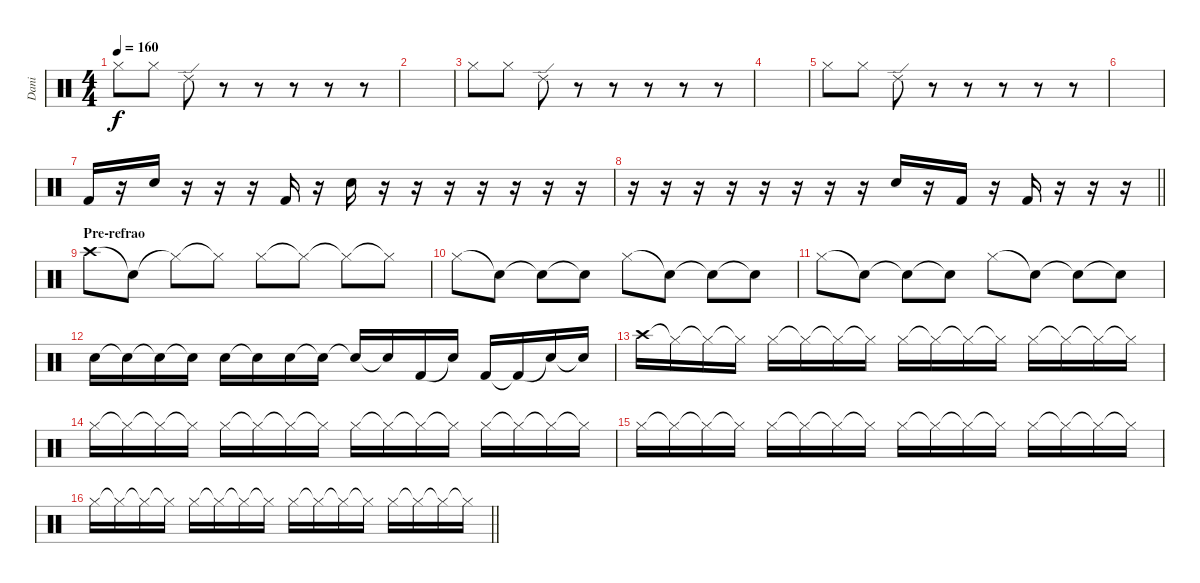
\track ("Dani " "Dani ") {instrument percussion}
\staff {score}
\articulation defaults
\ts (4 4)
\tempo 160
\clef neutral
\ks c "Hi-Hat (closed)".8{dy f} "Hi-Hat (closed)".8 "Ride (edge) 2".8
r.8 r.8 r.8 r.8 r.8 |
|
"Hi-Hat (closed)".8 "Hi-Hat (closed)".8 "Ride (edge) 2".8 r.8 r.8 r.8 r.8 r.8 |
|
"Hi-Hat (closed)".8 "Hi-Hat (closed)".8 "Ride (edge) 2".8 r.8 r.8 r.8 r.8 r.8 |
|
"Kick (hit) 2".16 r.16 "Electric Snare (hit)".16 r.16 r.16 r.16 "Kick (hit) 2".16 r.16 "Electric Snare (hit)".16 r.16 r.16 r.16 r.16 r.16 r.16 r.16 |
\barLineRight lightlight
r.16 r.16 r.16 r.16 r.16 r.16 r.16 r.16 "Electric Snare (hit)".16 r.16 "Kick (hit) 2".16 r.16 "Kick (hit) 2".16 r.16 r.16 r.16 |
\section ("" "Pre-refrao")
"Crash high (hit)".8 "Snare (hit)"{t}.8 "Hi-Hat (closed)"{t}.8 "Hi-Hat (closed)"{t}.8 "Hi-Hat (closed)".8 "Hi-Hat (closed)"{t}.8 "Hi-Hat (closed)"{t}.8 "Hi-Hat (closed)"{t}.8 |
"Hi-Hat (closed)".8 "Snare (hit)"{t}.8 "Snare (hit)"{t}.8 "Snare (hit)"{t}.8 "Hi-Hat (closed)".8 "Snare (hit)"{t}.8 "Snare (hit)"{t}.8 "Snare (hit)"{t}.8 |
"Hi-Hat (closed)".8 "Snare (hit)"{t}.8 "Snare (hit)"{t}.8 "Snare (hit)"{t}.8 "Hi-Hat (closed)".8 "Snare (hit)"{t}.8 "Snare (hit)"{t}.8 "Snare (hit)"{t}.8 |
"Electric Snare (hit)".16 "Snare (hit)"{t}.16 "Snare (hit)"{t}.16 "Snare (hit)"{t}.16 "Electric Snare (hit)".16 "Snare (hit)"{t}.16 "Electric Snare (hit)".16 "Snare (hit)"{t}.16 "Snare (hit)"{t}.16 "Snare (hit)"{t}.16 "Kick (hit) 2".16 "Snare (hit)"{t}.16 "Kick (hit) 2".16 "Kick (hit) 2"{t}.16 "Snare (hit)"{t}.16 "Snare (hit)"{t}.16 |
"Crash high (hit)".16 "Hi-Hat (closed)"{t}.16 "Hi-Hat (closed)"{t}.16 "Hi-Hat (closed)"{t}.16 "Hi-Hat (closed)".16 "Hi-Hat (closed)"{t}.16 "Hi-Hat (closed)"{t}.16 "Hi-Hat (closed)"{t}.16 "Hi-Hat (closed)".16 "Hi-Hat (closed)"{t}.16 "Hi-Hat (closed)"{t}.16 "Hi-Hat (closed)"{t}.16 "Hi-Hat (closed)".16 "Hi-Hat (closed)"{t}.16 "Hi-Hat (closed)"{t}.16 "Hi-Hat (closed)"{t}.16 |
"Hi-Hat (closed)".16 "Hi-Hat (closed)"{t}.16 "Hi-Hat (closed)"{t}.16 "Hi-Hat (closed)"{t}.16 "Hi-Hat (closed)".16 "Hi-Hat (closed)"{t}.16 "Hi-Hat (closed)"{t}.16 "Hi-Hat (closed)"{t}.16 "Hi-Hat (closed)".16 "Hi-Hat (closed)"{t}.16 "Hi-Hat (closed)"{t}.16 "Hi-Hat (closed)"{t}.16 "Hi-Hat (closed)".16 "Hi-Hat (closed)"{t}.16 "Hi-Hat (closed)"{t}.16 "Hi-Hat (closed)"{t}.16 |
"Hi-Hat (closed)".16 "Hi-Hat (closed)"{t}.16 "Hi-Hat (closed)"{t}.16 "Hi-Hat (closed)"{t}.16 "Hi-Hat (closed)".16 "Hi-Hat (closed)"{t}.16 "Hi-Hat (closed)"{t}.16 "Hi-Hat (closed)"{t}.16 "Hi-Hat (closed)".16 "Hi-Hat (closed)"{t}.16 "Hi-Hat (closed)"{t}.16 "Hi-Hat (closed)"{t}.16 "Hi-Hat (closed)".16 "Hi-Hat (closed)"{t}.16 "Hi-Hat (closed)"{t}.16 "Hi-Hat (closed)"{t}.16 |
\barLineRight lightlight "Hi-Hat (closed)".16 "Hi-Hat (closed)"{t}.16 "Hi-Hat (closed)"{t}.16 "Hi-Hat (closed)"{t}.16 "Hi-Hat (closed)".16 "Hi-Hat (closed)"{t}.16 "Hi-Hat (closed)"{t}.16 "Hi-Hat (closed)"{t}.16 "Hi-Hat (closed)".16 "Hi-Hat (closed)"{t}.16 "Hi-Hat (closed)"{t}.16 "Hi-Hat (closed)"{t}.16 "Hi-Hat (closed)".16 "Hi-Hat (closed)"{t}.16 "Hi-Hat (closed)"{t}.16 "Hi-Hat (closed)"{t}.16
